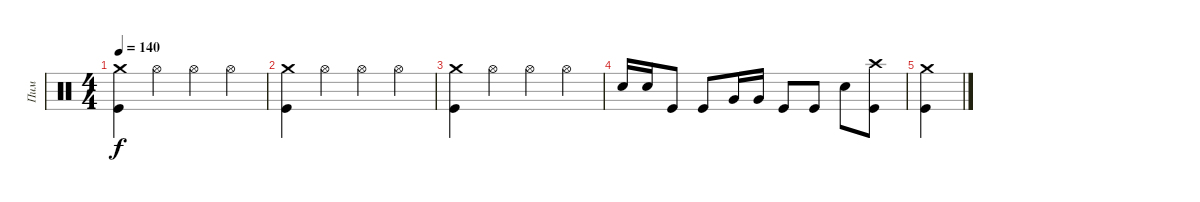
\track ("Пим" "Пим") {instrument percussion}
\staff {score}
\articulation defaults
\ts (4 4)
\tempo 140
\clef neutral
\ks c
("Crash medium (hit)" "Kick (hit)").4{dy f} "Hi-Hat (open)".4 "Hi-Hat (open)".4 "Hi-Hat (open)".4 |
("Crash medium (hit)" "Kick (hit)").4 "Hi-Hat (open)".4 "Hi-Hat (open)".4 "Hi-Hat (open)".4 |
("Crash medium (hit)" "Kick (hit)").4 "Hi-Hat (open)".4 "Hi-Hat (open)".4 "Hi-Hat (open)".4 |
"Snare (hit) 2".16 "Snare (hit) 2".16 "Kick (hit)".8 "Kick (hit)".8 "Very Low Tom (hit)".16 "Very Low Tom (hit)".16 "Kick (hit)".8 "Kick (hit)".8 "Snare (hit) 2".8 ("Crash high (hit)" "Kick (hit)").8 |
("Crash medium (hit)" "Kick (hit)").4
